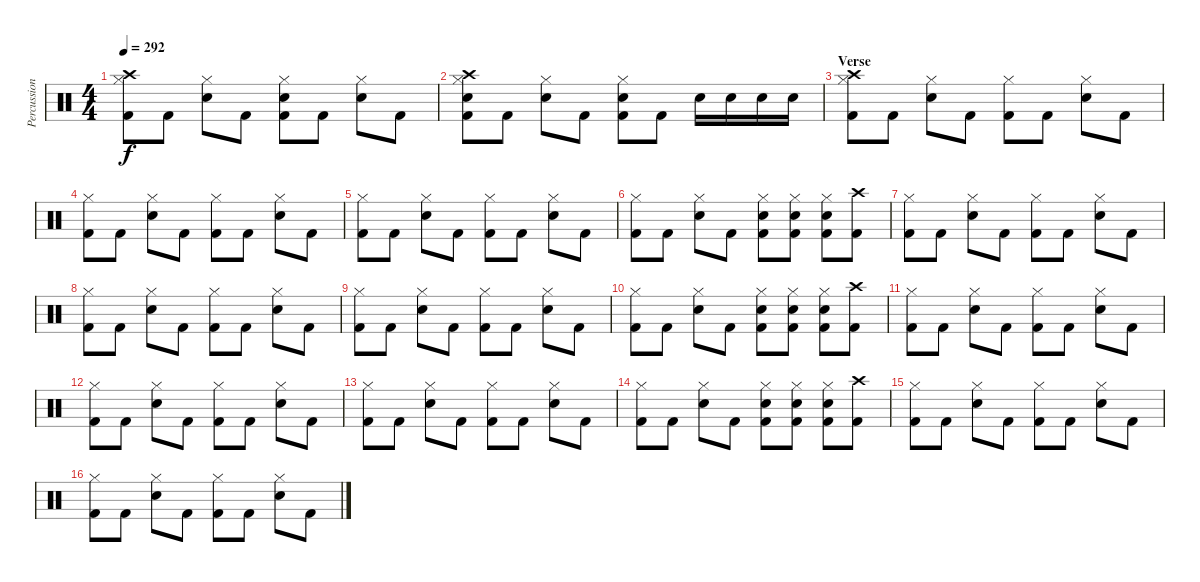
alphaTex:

\track ("Percussion" "Percussion") {instrument percussion}
\staff {score}
\articulation defaults
\ts (4 4)
\tempo 292
\clef neutral
\ks c
("Crash high (hit)" "Hi-Hat (closed)" "Kick (hit) 2").8{dy f} "Kick (hit) 2".8 ("Hi-Hat (closed)" "Electric Snare (hit)").8 "Kick (hit) 2".8 ("Hi-Hat (closed)" "Electric Snare (hit)" "Kick (hit) 2").8 "Kick (hit) 2".8 ("Hi-Hat (closed)" "Electric Snare (hit)").8 "Kick (hit) 2".8 |
("Crash high (hit)" "Hi-Hat (closed)" "Electric Snare (hit)" "Kick (hit) 2").8 "Kick (hit) 2".8 ("Hi-Hat (closed)" "Electric Snare (hit)").8 "Kick (hit) 2".8 ("Hi-Hat (closed)" "Electric Snare (hit)" "Kick (hit) 2").8 "Kick (hit) 2".8 "Electric Snare (hit)".16 "Electric Snare (hit)".16 "Electric Snare (hit)".16 "Electric Snare (hit)".16 |
\section ("" "Verse")
("Crash high (hit)" "Hi-Hat (closed)" "Kick (hit) 2").8 "Kick (hit) 2".8 ("Hi-Hat (closed)" "Electric Snare (hit)").8 "Kick (hit) 2".8 ("Hi-Hat (closed)" "Kick (hit) 2").8 "Kick (hit) 2".8 ("Hi-Hat (closed)" "Electric Snare (hit)").8 "Kick (hit) 2".8 |
("Hi-Hat (closed)" "Kick (hit) 2").8 "Kick (hit) 2".8 ("Hi-Hat (closed)" "Electric Snare (hit)").8 "Kick (hit) 2".8 ("Hi-Hat (closed)" "Kick (hit) 2").8 "Kick (hit) 2".8 ("Hi-Hat (closed)" "Electric Snare (hit)").8 "Kick (hit) 2".8 |
("Hi-Hat (closed)" "Kick (hit) 2").8 "Kick (hit) 2".8 ("Hi-Hat (closed)" "Electric Snare (hit)").8 "Kick (hit) 2".8 ("Hi-Hat (closed)" "Kick (hit) 2").8 "Kick (hit) 2".8 ("Hi-Hat (closed)" "Electric Snare (hit)").8 "Kick (hit) 2".8 |
("Hi-Hat (closed)" "Kick (hit) 2").8 "Kick (hit) 2".8 ("Hi-Hat (closed)" "Electric Snare (hit)").8 "Kick (hit) 2".8 ("Hi-Hat (closed)" "Electric Snare (hit)" "Kick (hit) 2").8 ("Hi-Hat (closed)" "Electric Snare (hit)" "Kick (hit) 2").8 ("Hi-Hat (closed)" "Electric Snare (hit)" "Kick (hit) 2").8 ("Crash high (hit)" "Kick (hit) 2").8 |
("Hi-Hat (closed)" "Kick (hit) 2").8 "Kick (hit) 2".8 ("Hi-Hat (closed)" "Electric Snare (hit)").8 "Kick (hit) 2".8 ("Hi-Hat (closed)" "Kick (hit) 2").8 "Kick (hit) 2".8 ("Hi-Hat (closed)" "Electric Snare (hit)").8 "Kick (hit) 2".8 |
("Hi-Hat (closed)" "Kick (hit) 2").8 "Kick (hit) 2".8 ("Hi-Hat (closed)" "Electric Snare (hit)").8 "Kick (hit) 2".8 ("Hi-Hat (closed)" "Kick (hit) 2").8 "Kick (hit) 2".8 ("Hi-Hat (closed)" "Electric Snare (hit)").8 "Kick (hit) 2".8 |
("Hi-Hat (closed)" "Kick (hit) 2").8 "Kick (hit) 2".8 ("Hi-Hat (closed)" "Electric Snare (hit)").8 "Kick (hit) 2".8 ("Hi-Hat (closed)" "Kick (hit) 2").8 "Kick (hit) 2".8 ("Hi-Hat (closed)" "Electric Snare (hit)").8 "Kick (hit) 2".8 |
("Hi-Hat (closed)" "Kick (hit) 2").8 "Kick (hit) 2".8 ("Hi-Hat (closed)" "Electric Snare (hit)").8 "Kick (hit) 2".8 ("Hi-Hat (closed)" "Electric Snare (hit)" "Kick (hit) 2").8 ("Hi-Hat (closed)" "Electric Snare (hit)" "Kick (hit) 2").8 ("Hi-Hat (closed)" "Electric Snare (hit)" "Kick (hit) 2").8 ("Crash high (hit)" "Kick (hit) 2").8 |
("Hi-Hat (closed)" "Kick (hit) 2").8 "Kick (hit) 2".8 ("Hi-Hat (closed)" "Electric Snare (hit)").8 "Kick (hit) 2".8 ("Hi-Hat (closed)" "Kick (hit) 2").8 "Kick (hit) 2".8 ("Hi-Hat (closed)" "Electric Snare (hit)").8 "Kick (hit) 2".8 |
("Hi-Hat (closed)" "Kick (hit) 2").8 "Kick (hit) 2".8 ("Hi-Hat (closed)" "Electric Snare (hit)").8 "Kick (hit) 2".8 ("Hi-Hat (closed)" "Kick (hit) 2").8 "Kick (hit) 2".8 ("Hi-Hat (closed)" "Electric Snare (hit)").8 "Kick (hit) 2".8 |
("Hi-Hat (closed)" "Kick (hit) 2").8 "Kick (hit) 2".8 ("Hi-Hat (closed)" "Electric Snare (hit)").8 "Kick (hit) 2".8 ("Hi-Hat (closed)" "Kick (hit) 2").8 "Kick (hit) 2".8 ("Hi-Hat (closed)" "Electric Snare (hit)").8 "Kick (hit) 2".8 |
("Hi-Hat (closed)" "Kick (hit) 2").8 "Kick (hit) 2".8 ("Hi-Hat (closed)" "Electric Snare (hit)").8 "Kick (hit) 2".8 ("Hi-Hat (closed)" "Electric Snare (hit)" "Kick (hit) 2").8 ("Hi-Hat (closed)" "Electric Snare (hit)" "Kick (hit) 2").8 ("Hi-Hat (closed)" "Electric Snare (hit)" "Kick (hit) 2").8 ("Crash high (hit)" "Kick (hit) 2").8 |
("Hi-Hat (closed)" "Kick (hit) 2").8 "Kick (hit) 2".8 ("Hi-Hat (closed)" "Electric Snare (hit)").8 "Kick (hit) 2".8 ("Hi-Hat (closed)" "Kick (hit) 2").8 "Kick (hit) 2".8 ("Hi-Hat (closed)" "Electric Snare (hit)").8 "Kick (hit) 2".8 |
("Hi-Hat (closed)" "Kick (hit) 2").8 "Kick (hit) 2".8 ("Hi-Hat (closed)" "Electric Snare (hit)").8 "Kick (hit) 2".8 ("Hi-Hat (closed)" "Kick (hit) 2").8 "Kick (hit) 2".8 ("Hi-Hat (closed)" "Electric Snare (hit)").8 "Kick (hit) 2".8
